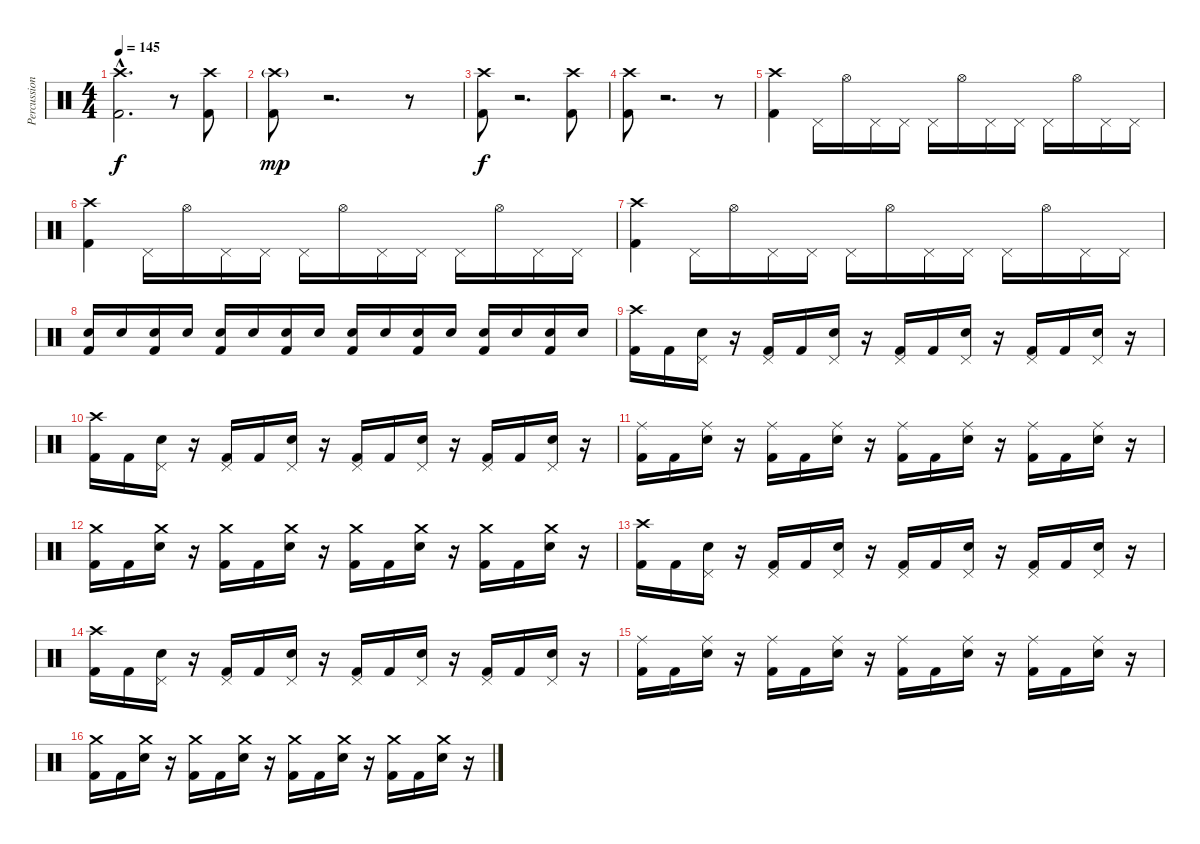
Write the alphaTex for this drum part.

\track ("Percussion" "Percussion") {instrument percussion}
\staff {score}
\articulation defaults
\ts (4 4)
\tempo 145
\clef neutral
\ks c
("Crash high (hit)"{hac} "Kick (hit) 2"{hac}).2{d dy f} r.8 ("Crash high (hit)" "Kick (hit) 2").8 |
("Crash high (hit)"{g} "Kick (hit) 2").8{dy mp} r.2{d} r.8 |
("Crash high (hit)" "Kick (hit) 2").8{dy f} r.2{d} ("Crash high (hit)" "Kick (hit) 2").8 |
("Crash high (hit)" "Kick (hit) 2").8 r.2{d} r.8 |
("Crash high (hit)" "Kick (hit) 2").4 "Pedal Hi-Hat (hit)".16 "Hi-Hat (open)".16 "Pedal Hi-Hat (hit)".16 "Pedal Hi-Hat (hit)".16 "Pedal Hi-Hat (hit)".16 "Hi-Hat (open)".16 "Pedal Hi-Hat (hit)".16 "Pedal Hi-Hat (hit)".16 "Pedal Hi-Hat (hit)".16 "Hi-Hat (open)".16 "Pedal Hi-Hat (hit)".16 "Pedal Hi-Hat (hit)".16 |
("Crash high (hit)" "Kick (hit) 2").4 "Pedal Hi-Hat (hit)".16 "Hi-Hat (open)".16 "Pedal Hi-Hat (hit)".16 "Pedal Hi-Hat (hit)".16 "Pedal Hi-Hat (hit)".16 "Hi-Hat (open)".16 "Pedal Hi-Hat (hit)".16 "Pedal Hi-Hat (hit)".16 "Pedal Hi-Hat (hit)".16 "Hi-Hat (open)".16 "Pedal Hi-Hat (hit)".16 "Pedal Hi-Hat (hit)".16 |
("Crash high (hit)" "Kick (hit) 2").4 "Pedal Hi-Hat (hit)".16 "Hi-Hat (open)".16 "Pedal Hi-Hat (hit)".16 "Pedal Hi-Hat (hit)".16 "Pedal Hi-Hat (hit)".16 "Hi-Hat (open)".16 "Pedal Hi-Hat (hit)".16 "Pedal Hi-Hat (hit)".16 "Pedal Hi-Hat (hit)".16 "Hi-Hat (open)".16 "Pedal Hi-Hat (hit)".16 "Pedal Hi-Hat (hit)".16 |
("Electric Snare (hit)" "Kick (hit) 2").16 "Electric Snare (hit)".16 ("Electric Snare (hit)" "Kick (hit) 2").16 "Electric Snare (hit)".16 ("Electric Snare (hit)" "Kick (hit) 2").16 "Electric Snare (hit)".16 ("Electric Snare (hit)" "Kick (hit) 2").16 "Electric Snare (hit)".16 ("Electric Snare (hit)" "Kick (hit) 2").16 "Electric Snare (hit)".16 ("Electric Snare (hit)" "Kick (hit) 2").16 "Electric Snare (hit)".16 ("Electric Snare (hit)" "Kick (hit) 2").16 "Electric Snare (hit)".16 ("Electric Snare (hit)" "Kick (hit) 2").16 "Electric Snare (hit)".16 |
("Crash high (hit)" "Kick (hit) 2").16 "Kick (hit) 2".16 ("Pedal Hi-Hat (hit)" "Electric Snare (hit)").16 r.16 ("Pedal Hi-Hat (hit)" "Kick (hit) 2").16 "Kick (hit) 2".16 ("Pedal Hi-Hat (hit)" "Electric Snare (hit)").16 r.16 ("Pedal Hi-Hat (hit)" "Kick (hit) 2").16 "Kick (hit) 2".16 ("Pedal Hi-Hat (hit)" "Electric Snare (hit)").16 r.16 ("Pedal Hi-Hat (hit)" "Kick (hit) 2").16 "Kick (hit) 2".16 ("Pedal Hi-Hat (hit)" "Electric Snare (hit)").16 r.16 |
("Crash high (hit)" "Kick (hit) 2").16 "Kick (hit) 2".16 ("Pedal Hi-Hat (hit)" "Electric Snare (hit)").16 r.16 ("Pedal Hi-Hat (hit)" "Kick (hit) 2").16 "Kick (hit) 2".16 ("Pedal Hi-Hat (hit)" "Electric Snare (hit)").16 r.16 ("Pedal Hi-Hat (hit)" "Kick (hit) 2").16 "Kick (hit) 2".16 ("Pedal Hi-Hat (hit)" "Electric Snare (hit)").16 r.16 ("Pedal Hi-Hat (hit)" "Kick (hit) 2").16 "Kick (hit) 2".16 ("Pedal Hi-Hat (hit)" "Electric Snare (hit)").16 r.16 |
("Ride (middle)" "Kick (hit) 2").16 "Kick (hit) 2".16 ("Ride (middle)" "Electric Snare (hit)").16 r.16 ("Ride (middle)" "Kick (hit) 2").16 "Kick (hit) 2".16 ("Ride (middle)" "Electric Snare (hit)").16 r.16 ("Ride (middle)" "Kick (hit) 2").16 "Kick (hit) 2".16 ("Ride (middle)" "Electric Snare (hit)").16 r.16 ("Ride (middle)" "Kick (hit) 2").16 "Kick (hit) 2".16 ("Ride (middle)" "Electric Snare (hit)").16 r.16 |
("Crash medium (hit)" "Kick (hit) 2").16 "Kick (hit) 2".16 ("Crash medium (hit)" "Electric Snare (hit)").16 r.16 ("Crash medium (hit)" "Kick (hit) 2").16 "Kick (hit) 2".16 ("Crash medium (hit)" "Electric Snare (hit)").16 r.16 ("Crash medium (hit)" "Kick (hit) 2").16 "Kick (hit) 2".16 ("Crash medium (hit)" "Electric Snare (hit)").16 r.16 ("Crash medium (hit)" "Kick (hit) 2").16 "Kick (hit) 2".16 ("Crash medium (hit)" "Electric Snare (hit)").16 r.16 |
("Crash high (hit)" "Kick (hit) 2").16 "Kick (hit) 2".16 ("Pedal Hi-Hat (hit)" "Electric Snare (hit)").16 r.16 ("Pedal Hi-Hat (hit)" "Kick (hit) 2").16 "Kick (hit) 2".16 ("Pedal Hi-Hat (hit)" "Electric Snare (hit)").16 r.16 ("Pedal Hi-Hat (hit)" "Kick (hit) 2").16 "Kick (hit) 2".16 ("Pedal Hi-Hat (hit)" "Electric Snare (hit)").16 r.16 ("Pedal Hi-Hat (hit)" "Kick (hit) 2").16 "Kick (hit) 2".16 ("Pedal Hi-Hat (hit)" "Electric Snare (hit)").16 r.16 |
("Crash high (hit)" "Kick (hit) 2").16 "Kick (hit) 2".16 ("Pedal Hi-Hat (hit)" "Electric Snare (hit)").16 r.16 ("Pedal Hi-Hat (hit)" "Kick (hit) 2").16 "Kick (hit) 2".16 ("Pedal Hi-Hat (hit)" "Electric Snare (hit)").16 r.16 ("Pedal Hi-Hat (hit)" "Kick (hit) 2").16 "Kick (hit) 2".16 ("Pedal Hi-Hat (hit)" "Electric Snare (hit)").16 r.16 ("Pedal Hi-Hat (hit)" "Kick (hit) 2").16 "Kick (hit) 2".16 ("Pedal Hi-Hat (hit)" "Electric Snare (hit)").16 r.16 |
("Ride (middle)" "Kick (hit) 2").16 "Kick (hit) 2".16 ("Ride (middle)" "Electric Snare (hit)").16 r.16 ("Ride (middle)" "Kick (hit) 2").16 "Kick (hit) 2".16 ("Ride (middle)" "Electric Snare (hit)").16 r.16 ("Ride (middle)" "Kick (hit) 2").16 "Kick (hit) 2".16 ("Ride (middle)" "Electric Snare (hit)").16 r.16 ("Ride (middle)" "Kick (hit) 2").16 "Kick (hit) 2".16 ("Ride (middle)" "Electric Snare (hit)").16 r.16 |
("Crash medium (hit)" "Kick (hit) 2").16 "Kick (hit) 2".16 ("Crash medium (hit)" "Electric Snare (hit)").16 r.16 ("Crash medium (hit)" "Kick (hit) 2").16 "Kick (hit) 2".16 ("Crash medium (hit)" "Electric Snare (hit)").16 r.16 ("Crash medium (hit)" "Kick (hit) 2").16 "Kick (hit) 2".16 ("Crash medium (hit)" "Electric Snare (hit)").16 r.16 ("Crash medium (hit)" "Kick (hit) 2").16 "Kick (hit) 2".16 ("Crash medium (hit)" "Electric Snare (hit)").16 r.16
